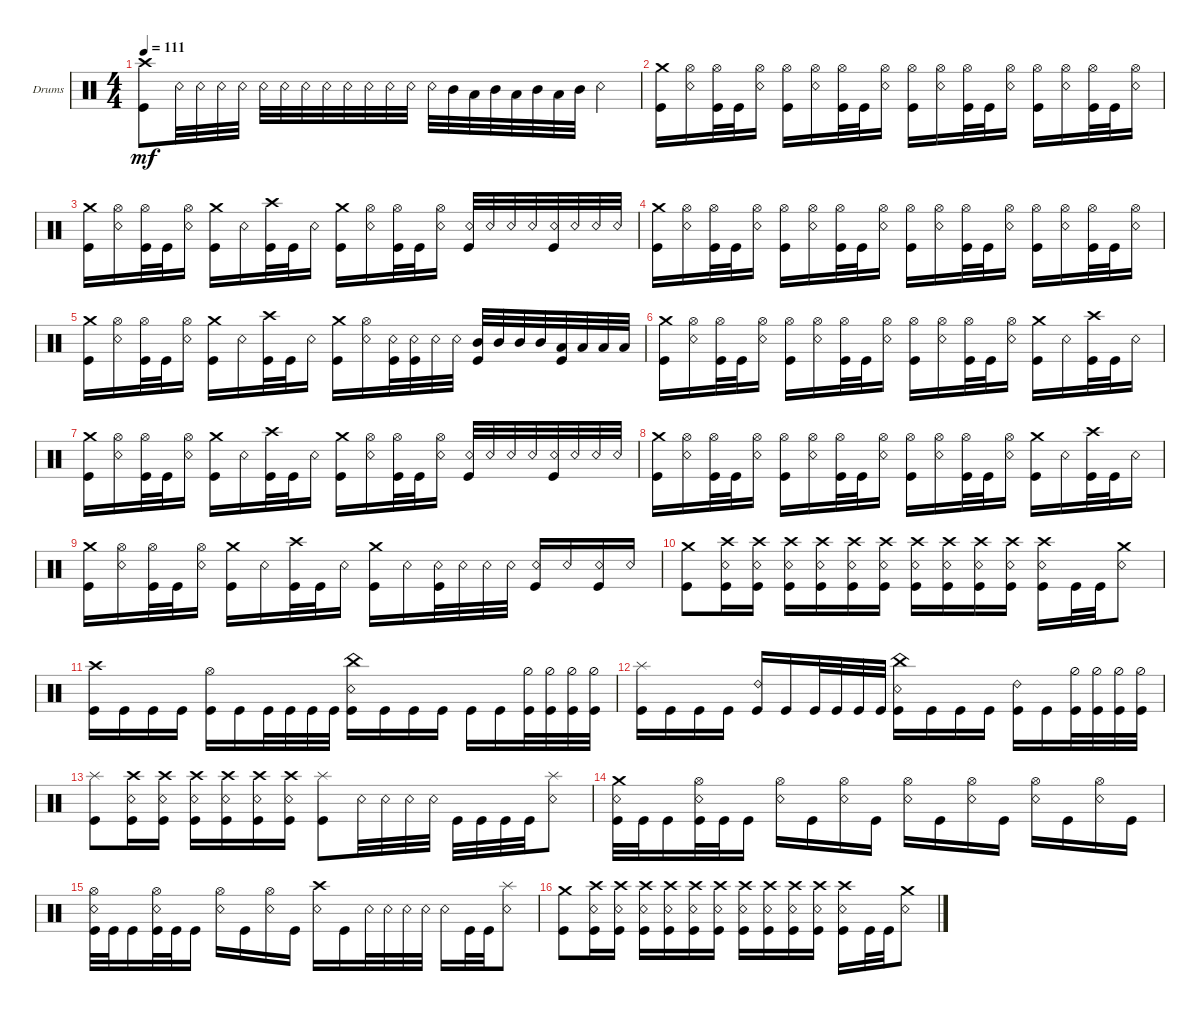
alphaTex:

\defaultSystemsLayout 4
\bracketExtendMode groupsimilarinstruments
\firstSystemTrackNameOrientation horizontal
\otherSystemsTrackNameOrientation horizontal
\track ("Drums" "Drums") {instrument percussion}
\staff {score}
\articulation defaults
\ts (4 4)
\tempo 111
\clef neutral
\ks c
("Crash high (hit)" "Kick (hit)").8{dy mf} "Snare (rim shot)".32 "Snare (rim shot)".32 "Snare (rim shot)".32 "Snare (rim shot)".32 "Snare (rim shot)".32 "Snare (rim shot)".32 "Snare (rim shot)".32 "Snare (rim shot)".32 "Snare (rim shot)".32 "Snare (rim shot)".32 "Snare (rim shot)".32 "Snare (rim shot)".32 "Snare (rim shot)".32 "Mid Tom (hit)".32 "Low Tom (hit)".32 "Mid Tom (hit)".32 "Low Tom (hit)".32 "Mid Tom (hit)".32 "Low Tom (hit)".32 "Mid Tom (hit)".32 "Snare (rim shot)".4 |
("Kick (hit)" "Crash medium (hit)").16 ("Snare (rim shot)" "Hi-Hat (open)").16 ("Kick (hit)" "Hi-Hat (open)").32 "Kick (hit)".32 ("Snare (rim shot)" "Hi-Hat (open)").16 ("Kick (hit)" "Hi-Hat (open)").16 ("Snare (rim shot)" "Hi-Hat (open)").16 ("Kick (hit)" "Hi-Hat (open)").32 "Kick (hit)".32 ("Snare (rim shot)" "Hi-Hat (open)").16 ("Kick (hit)" "Hi-Hat (open)").16 ("Snare (rim shot)" "Hi-Hat (open)").16 ("Kick (hit)" "Hi-Hat (open)").32 "Kick (hit)".32 ("Snare (rim shot)" "Hi-Hat (open)").16 ("Kick (hit)" "Hi-Hat (open)").16 ("Snare (rim shot)" "Hi-Hat (open)").16 ("Kick (hit)" "Hi-Hat (open)").32 "Kick (hit)".32 ("Snare (rim shot)" "Hi-Hat (open)").16 |
("Kick (hit)" "Crash medium (hit)").16 ("Snare (rim shot)" "Hi-Hat (open)").16 ("Kick (hit)" "Hi-Hat (open)").32 "Kick (hit)".32 ("Snare (rim shot)" "Hi-Hat (open)").16 ("Kick (hit)" "Crash medium (hit)").16 "Snare (rim shot)".16 ("Kick (hit)" "Crash high (hit)").32 "Kick (hit)".32 "Snare (rim shot)".16 ("Kick (hit)" "Crash medium (hit)").16 ("Snare (rim shot)" "Hi-Hat (open)").16 ("Kick (hit)" "Hi-Hat (open)").32 "Kick (hit)".32 ("Snare (rim shot)" "Hi-Hat (open)").16 ("Kick (hit)" "Snare (rim shot)").32 "Snare (rim shot)".32 "Snare (rim shot)".32 "Snare (rim shot)".32 ("Kick (hit)" "Snare (rim shot)").32 "Snare (rim shot)".32 "Snare (rim shot)".32 "Snare (rim shot)".32 |
("Kick (hit)" "Crash medium (hit)").16 ("Snare (rim shot)" "Hi-Hat (open)").16 ("Kick (hit)" "Hi-Hat (open)").32 "Kick (hit)".32 ("Snare (rim shot)" "Hi-Hat (open)").16 ("Kick (hit)" "Hi-Hat (open)").16 ("Snare (rim shot)" "Hi-Hat (open)").16 ("Kick (hit)" "Hi-Hat (open)").32 "Kick (hit)".32 ("Snare (rim shot)" "Hi-Hat (open)").16 ("Kick (hit)" "Hi-Hat (open)").16 ("Snare (rim shot)" "Hi-Hat (open)").16 ("Kick (hit)" "Hi-Hat (open)").32 "Kick (hit)".32 ("Snare (rim shot)" "Hi-Hat (open)").16 ("Kick (hit)" "Hi-Hat (open)").16 ("Snare (rim shot)" "Hi-Hat (open)").16 ("Kick (hit)" "Hi-Hat (open)").32 "Kick (hit)".32 ("Snare (rim shot)" "Hi-Hat (open)").16 |
("Kick (hit)" "Crash medium (hit)").16 ("Snare (rim shot)" "Hi-Hat (open)").16 ("Kick (hit)" "Hi-Hat (open)").32 "Kick (hit)".32 ("Snare (rim shot)" "Hi-Hat (open)").16 ("Kick (hit)" "Crash medium (hit)").16 "Snare (rim shot)".16 ("Kick (hit)" "Crash high (hit)").32 "Kick (hit)".32 "Snare (rim shot)".16 ("Kick (hit)" "Crash medium (hit)").16 ("Snare (rim shot)" "Hi-Hat (open)").16 ("Kick (hit)" "Snare (rim shot)").32 ("Kick (hit)" "Snare (rim shot)").32 "Snare (rim shot)".32 "Snare (rim shot)".32 ("Mid Tom (hit)" "Kick (hit)").32 "Mid Tom (hit)".32 "Mid Tom (hit)".32 "Mid Tom (hit)".32 ("Low Tom (hit)" "Kick (hit)").32 "Low Tom (hit)".32 "Low Tom (hit)".32 "Low Tom (hit)".32 |
("Kick (hit)" "Crash medium (hit)").16 ("Snare (rim shot)" "Hi-Hat (open)").16 ("Kick (hit)" "Hi-Hat (open)").32 "Kick (hit)".32 ("Snare (rim shot)" "Hi-Hat (open)").16 ("Kick (hit)" "Hi-Hat (open)").16 ("Snare (rim shot)" "Hi-Hat (open)").16 ("Kick (hit)" "Hi-Hat (open)").32 "Kick (hit)".32 ("Snare (rim shot)" "Hi-Hat (open)").16 ("Kick (hit)" "Hi-Hat (open)").16 ("Snare (rim shot)" "Hi-Hat (open)").16 ("Kick (hit)" "Hi-Hat (open)").32 "Kick (hit)".32 ("Snare (rim shot)" "Hi-Hat (open)").16 ("Kick (hit)" "Crash medium (hit)").16 "Snare (rim shot)".16 ("Kick (hit)" "Crash high (hit)").32 "Kick (hit)".32 "Snare (rim shot)".16 |
("Kick (hit)" "Crash medium (hit)").16 ("Snare (rim shot)" "Hi-Hat (open)").16 ("Kick (hit)" "Hi-Hat (open)").32 "Kick (hit)".32 ("Snare (rim shot)" "Hi-Hat (open)").16 ("Kick (hit)" "Crash medium (hit)").16 "Snare (rim shot)".16 ("Kick (hit)" "Crash high (hit)").32 "Kick (hit)".32 "Snare (rim shot)".16 ("Kick (hit)" "Crash medium (hit)").16 ("Snare (rim shot)" "Hi-Hat (open)").16 ("Kick (hit)" "Hi-Hat (open)").32 "Kick (hit)".32 ("Snare (rim shot)" "Hi-Hat (open)").16 ("Kick (hit)" "Snare (rim shot)").32 "Snare (rim shot)".32 "Snare (rim shot)".32 "Snare (rim shot)".32 ("Kick (hit)" "Snare (rim shot)").32 "Snare (rim shot)".32 "Snare (rim shot)".32 "Snare (rim shot)".32 |
("Kick (hit)" "Crash medium (hit)").16 ("Snare (rim shot)" "Hi-Hat (open)").16 ("Kick (hit)" "Hi-Hat (open)").32 "Kick (hit)".32 ("Snare (rim shot)" "Hi-Hat (open)").16 ("Kick (hit)" "Hi-Hat (open)").16 ("Snare (rim shot)" "Hi-Hat (open)").16 ("Kick (hit)" "Hi-Hat (open)").32 "Kick (hit)".32 ("Snare (rim shot)" "Hi-Hat (open)").16 ("Kick (hit)" "Hi-Hat (open)").16 ("Snare (rim shot)" "Hi-Hat (open)").16 ("Kick (hit)" "Hi-Hat (open)").32 "Kick (hit)".32 ("Snare (rim shot)" "Hi-Hat (open)").16 ("Kick (hit)" "Crash medium (hit)").16 "Snare (rim shot)".16 ("Kick (hit)" "Crash high (hit)").32 "Kick (hit)".32 "Snare (rim shot)".16 |
("Kick (hit)" "Crash medium (hit)").16 ("Snare (rim shot)" "Hi-Hat (open)").16 ("Kick (hit)" "Hi-Hat (open)").32 "Kick (hit)".32 ("Snare (rim shot)" "Hi-Hat (open)").16 ("Kick (hit)" "Crash medium (hit)").16 "Snare (rim shot)".16 ("Kick (hit)" "Crash high (hit)").32 "Kick (hit)".32 "Snare (rim shot)".16 ("Kick (hit)" "Crash medium (hit)").16 "Snare (rim shot)".16 ("Kick (hit)" "Snare (rim shot)").32 "Snare (rim shot)".32 "Snare (rim shot)".32 "Snare (rim shot)".32 ("Snare (rim shot)" "Kick (hit)").16 "Snare (rim shot)".16 ("Snare (rim shot)" "Kick (hit)").16 "Snare (rim shot)".16 |
("Kick (hit)" "Crash medium (hit)").8 ("Kick (hit)" "Crash high (hit)" "Snare (rim shot)").16 ("Kick (hit)" "Crash high (hit)" "Snare (rim shot)").16 ("Kick (hit)" "Crash high (hit)" "Snare (rim shot)").16 ("Kick (hit)" "Crash high (hit)" "Snare (rim shot)").16 ("Kick (hit)" "Crash high (hit)" "Snare (rim shot)").16 ("Kick (hit)" "Crash high (hit)" "Snare (rim shot)").16 ("Kick (hit)" "Crash high (hit)" "Snare (rim shot)").16 ("Kick (hit)" "Crash high (hit)" "Snare (rim shot)").16 ("Kick (hit)" "Crash high (hit)" "Snare (rim shot)").16 ("Kick (hit)" "Crash high (hit)" "Snare (rim shot)").16 ("Kick (hit)" "Crash high (hit)" "Snare (rim shot)").16 "Kick (hit)".32 "Kick (hit)".32 ("Crash medium (hit)" "Snare (rim shot)").8 |
("Kick (hit)" "Crash high (hit)").16 "Kick (hit)".16 "Kick (hit)".16 "Kick (hit)".16 ("Kick (hit)" "Hi-Hat (open)").16 "Kick (hit)".16 "Kick (hit)".32 "Kick (hit)".32 "Kick (hit)".32 "Kick (hit)".32 ("Kick (hit)" "China (hit)" "Snare (rim shot)").16 "Kick (hit)".16 "Kick (hit)".16 "Kick (hit)".16 "Kick (hit)".16 "Kick (hit)".16 ("Kick (hit)" "Hi-Hat (half)").32 ("Kick (hit)" "Hi-Hat (half)").32 ("Kick (hit)" "Hi-Hat (half)").32 ("Kick (hit)" "Hi-Hat (half)").32 |
("Kick (hit)" "Splash (hit)").16 "Kick (hit)".16 "Kick (hit)".16 "Kick (hit)".16 ("Kick (hit)" "Ride (bell) 2").16 "Kick (hit)".16 "Kick (hit)".32 "Kick (hit)".32 "Kick (hit)".32 "Kick (hit)".32 ("Kick (hit)" "China (hit)" "Snare (rim shot)").16 "Kick (hit)".16 "Kick (hit)".16 "Kick (hit)".16 ("Kick (hit)" "Ride (bell) 2").16 "Kick (hit)".16 ("Kick (hit)" "Hi-Hat (half)").32 ("Kick (hit)" "Hi-Hat (half)").32 ("Kick (hit)" "Hi-Hat (half)").32 ("Kick (hit)" "Hi-Hat (half)").32 |
("Kick (hit)" "Splash (hit)").8 ("Kick (hit)" "Crash high (hit)" "Snare (rim shot)").16 ("Kick (hit)" "Crash high (hit)" "Snare (rim shot)").16 ("Kick (hit)" "Crash high (hit)" "Snare (rim shot)").16 ("Kick (hit)" "Crash high (hit)" "Snare (rim shot)").16 ("Kick (hit)" "Crash high (hit)" "Snare (rim shot)").16 ("Kick (hit)" "Crash high (hit)" "Snare (rim shot)").16 ("Kick (hit)" "Splash (hit)").8 "Snare (rim shot)".32 "Snare (rim shot)".32 "Snare (rim shot)".32 "Snare (rim shot)".32 "Kick (hit)".32 "Kick (hit)".32 "Kick (hit)".32 "Kick (hit)".32 ("Snare (rim shot)" "Splash (hit)").8 |
("Kick (hit)" "Snare (rim shot)" "Crash medium (hit)").32 "Kick (hit)".32 "Kick (hit)".16 ("Kick (hit)" "Snare (rim shot)" "Hi-Hat (open)").32 "Kick (hit)".32 "Kick (hit)".16 ("Snare (rim shot)" "Hi-Hat (open)").16 "Kick (hit)".16 ("Snare (rim shot)" "Hi-Hat (open)").16 "Kick (hit)".16 ("Snare (rim shot)" "Hi-Hat (open)").16 "Kick (hit)".16 ("Snare (rim shot)" "Hi-Hat (open)").16 "Kick (hit)".16 ("Snare (rim shot)" "Hi-Hat (open)").16 "Kick (hit)".16 ("Snare (rim shot)" "Hi-Hat (open)").16 "Kick (hit)".16 |
("Kick (hit)" "Snare (rim shot)" "Hi-Hat (open)").32 "Kick (hit)".32 "Kick (hit)".16 ("Kick (hit)" "Snare (rim shot)" "Hi-Hat (open)").32 "Kick (hit)".32 "Kick (hit)".16 ("Snare (rim shot)" "Hi-Hat (open)").16 "Kick (hit)".16 ("Snare (rim shot)" "Hi-Hat (open)").16 "Kick (hit)".16 ("Crash high (hit)" "Snare (rim shot)").16 "Kick (hit)".16 "Snare (rim shot)".32 "Snare (rim shot)".32 "Snare (rim shot)".32 "Snare (rim shot)".32 "Snare (rim shot)".16 "Kick (hit)".32 "Kick (hit)".32 ("Snare (rim shot)" "Splash (hit)").8 |
("Kick (hit)" "Crash medium (hit)").8 ("Kick (hit)" "Crash high (hit)" "Snare (rim shot)").16 ("Kick (hit)" "Crash high (hit)" "Snare (rim shot)").16 ("Kick (hit)" "Crash high (hit)" "Snare (rim shot)").16 ("Kick (hit)" "Crash high (hit)" "Snare (rim shot)").16 ("Kick (hit)" "Crash high (hit)" "Snare (rim shot)").16 ("Kick (hit)" "Crash high (hit)" "Snare (rim shot)").16 ("Kick (hit)" "Crash high (hit)" "Snare (rim shot)").16 ("Kick (hit)" "Crash high (hit)" "Snare (rim shot)").16 ("Kick (hit)" "Crash high (hit)" "Snare (rim shot)").16 ("Kick (hit)" "Crash high (hit)" "Snare (rim shot)").16 ("Kick (hit)" "Crash high (hit)" "Snare (rim shot)").16 "Kick (hit)".32 "Kick (hit)".32 ("Crash medium (hit)" "Snare (rim shot)").8
